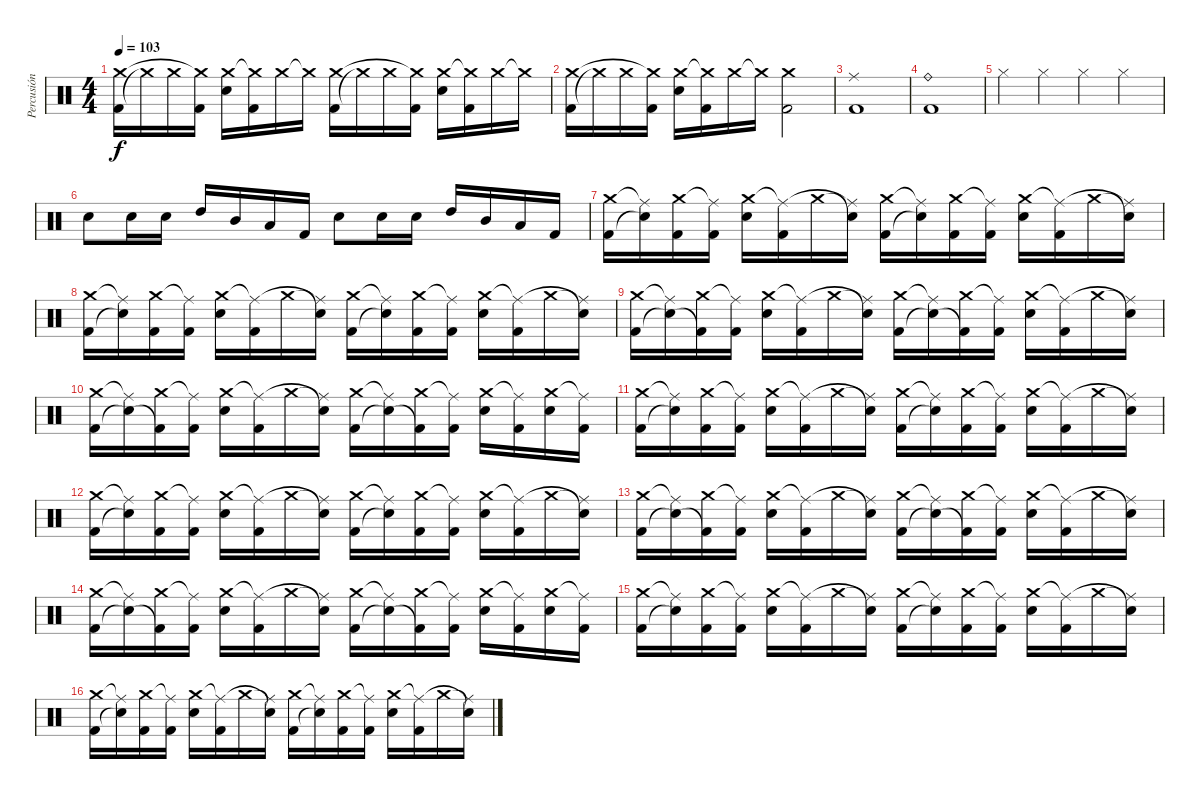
\track ("Percusión" "Percusión") {instrument percussion}
\staff {score}
\articulation defaults
\ts (4 4)
\tempo 103
\clef neutral
\ks c
("Kick (hit) 2" "Crash medium (hit)").16{dy f} "Crash medium (hit)"{t}.16 "Crash medium (hit)".16 ("Kick (hit) 2" "Crash medium (hit)"{t}).16 ("Electric Snare (hit)" "Crash medium (hit)").16 ("Kick (hit) 2" "Crash medium (hit)"{t}).16 "Crash medium (hit)".16 "Crash medium (hit)"{t}.16 ("Kick (hit) 2" "Crash medium (hit)").16 "Crash medium (hit)"{t}.16 "Crash medium (hit)".16 ("Kick (hit) 2" "Crash medium (hit)"{t}).16 ("Electric Snare (hit)" "Crash medium (hit)").16 ("Kick (hit) 2" "Crash medium (hit)"{t}).16 "Crash medium (hit)".16 "Crash medium (hit)"{t}.16 |
("Kick (hit) 2" "Crash medium (hit)").16 "Crash medium (hit)"{t}.16 "Crash medium (hit)".16 ("Kick (hit) 2" "Crash medium (hit)"{t}).16 ("Electric Snare (hit)" "Crash medium (hit)").16 ("Kick (hit) 2" "Crash medium (hit)"{t}).16 "Crash medium (hit)".16 "Crash medium (hit)"{t}.16 ("Kick (hit) 2" "Crash medium (hit)").2 |
("Ride (middle)" "Kick (hit) 2").1 |
("Ride (bell)" "Kick (hit) 2").1 |
"Hi-Hat (closed)".4 "Hi-Hat (closed)".4 "Hi-Hat (closed)".4 "Hi-Hat (closed)".4 |
"Electric Snare (hit)".8 "Electric Snare (hit)".16 "Electric Snare (hit)".16 "High Tom (hit)".16 "Mid Tom (hit)".16 "Low Tom (hit)".16 "Kick (hit) 2".16 "Electric Snare (hit)".8 "Electric Snare (hit)".16 "Electric Snare (hit)".16 "High Tom (hit)".16 "Mid Tom (hit)".16 "Low Tom (hit)".16 "Kick (hit) 2".16 |
("Kick (hit) 2" "Crash medium (hit)").16 ("Snare (hit)"{t} "Ride (middle)"{t}).16 ("Kick (hit) 2" "Crash medium (hit)").16 ("Kick (hit) 2" "Ride (middle)"{t}).16 ("Electric Snare (hit)" "Crash medium (hit)").16 ("Kick (hit) 2" "Ride (middle)"{t}).16 "Crash medium (hit)".16 ("Snare (hit)"{t} "Ride (middle)"{t}).16 ("Kick (hit) 2" "Crash medium (hit)").16 ("Snare (hit)"{t} "Ride (middle)"{t}).16 ("Kick (hit) 2" "Crash medium (hit)").16 ("Kick (hit) 2" "Ride (middle)"{t}).16 ("Electric Snare (hit)" "Crash medium (hit)").16 ("Kick (hit) 2" "Ride (middle)"{t}).16 "Crash medium (hit)".16 ("Snare (hit)"{t} "Ride (middle)"{t}).16 |
("Kick (hit) 2" "Crash medium (hit)").16 ("Snare (hit)"{t} "Ride (middle)"{t}).16 ("Kick (hit) 2" "Crash medium (hit)").16 ("Kick (hit) 2" "Ride (middle)"{t}).16 ("Electric Snare (hit)" "Crash medium (hit)").16 ("Kick (hit) 2" "Ride (middle)"{t}).16 "Crash medium (hit)".16 ("Snare (hit)"{t} "Ride (middle)"{t}).16 ("Kick (hit) 2" "Crash medium (hit)").16 ("Snare (hit)"{t} "Ride (middle)"{t}).16 ("Kick (hit) 2" "Crash medium (hit)").16 ("Kick (hit) 2" "Ride (middle)"{t}).16 ("Electric Snare (hit)" "Crash medium (hit)").16 ("Kick (hit) 2" "Ride (middle)"{t}).16 "Crash medium (hit)".16 ("Snare (hit)"{t} "Ride (middle)"{t}).16 |
("Kick (hit) 2" "Crash medium (hit)").16 ("Snare (hit)"{t} "Ride (middle)"{t}).16 ("Kick (hit) 2"{t} "Crash medium (hit)").16 ("Kick (hit) 2" "Ride (middle)"{t}).16 ("Electric Snare (hit)" "Crash medium (hit)").16 ("Kick (hit) 2" "Ride (middle)"{t}).16 "Crash medium (hit)".16 ("Snare (hit)"{t} "Ride (middle)"{t}).16 ("Kick (hit) 2" "Crash medium (hit)").16 ("Snare (hit)"{t} "Ride (middle)"{t}).16 ("Kick (hit) 2"{t} "Crash medium (hit)").16 ("Kick (hit) 2" "Ride (middle)"{t}).16 ("Electric Snare (hit)" "Crash medium (hit)").16 ("Kick (hit) 2" "Ride (middle)"{t}).16 "Crash medium (hit)".16 ("Snare (hit)"{t} "Ride (middle)"{t}).16 |
("Kick (hit) 2" "Crash medium (hit)").16 ("Snare (hit)"{t} "Ride (middle)"{t}).16 ("Kick (hit) 2"{t} "Crash medium (hit)").16 ("Kick (hit) 2" "Ride (middle)"{t}).16 ("Electric Snare (hit)" "Crash medium (hit)").16 ("Kick (hit) 2" "Ride (middle)"{t}).16 "Crash medium (hit)".16 ("Snare (hit)"{t} "Ride (middle)"{t}).16 ("Kick (hit) 2" "Crash medium (hit)").16 ("Snare (hit)"{t} "Ride (middle)"{t}).16 ("Kick (hit) 2"{t} "Crash medium (hit)").16 ("Kick (hit) 2" "Ride (middle)"{t}).16 ("Electric Snare (hit)" "Crash medium (hit)").16 ("Kick (hit) 2" "Ride (middle)"{t}).16 ("Electric Snare (hit)" "Crash medium (hit)").16 ("Kick (hit) 2" "Ride (middle)"{t}).16 |
("Kick (hit) 2" "Crash medium (hit)").16 ("Snare (hit)"{t} "Ride (middle)"{t}).16 ("Kick (hit) 2" "Crash medium (hit)").16 ("Kick (hit) 2" "Ride (middle)"{t}).16 ("Electric Snare (hit)" "Crash medium (hit)").16 ("Kick (hit) 2" "Ride (middle)"{t}).16 "Crash medium (hit)".16 ("Snare (hit)"{t} "Ride (middle)"{t}).16 ("Kick (hit) 2" "Crash medium (hit)").16 ("Snare (hit)"{t} "Ride (middle)"{t}).16 ("Kick (hit) 2" "Crash medium (hit)").16 ("Kick (hit) 2" "Ride (middle)"{t}).16 ("Electric Snare (hit)" "Crash medium (hit)").16 ("Kick (hit) 2" "Ride (middle)"{t}).16 "Crash medium (hit)".16 ("Snare (hit)"{t} "Ride (middle)"{t}).16 |
("Kick (hit) 2" "Crash medium (hit)").16 ("Snare (hit)"{t} "Ride (middle)"{t}).16 ("Kick (hit) 2" "Crash medium (hit)").16 ("Kick (hit) 2" "Ride (middle)"{t}).16 ("Electric Snare (hit)" "Crash medium (hit)").16 ("Kick (hit) 2" "Ride (middle)"{t}).16 "Crash medium (hit)".16 ("Snare (hit)"{t} "Ride (middle)"{t}).16 ("Kick (hit) 2" "Crash medium (hit)").16 ("Snare (hit)"{t} "Ride (middle)"{t}).16 ("Kick (hit) 2" "Crash medium (hit)").16 ("Kick (hit) 2" "Ride (middle)"{t}).16 ("Electric Snare (hit)" "Crash medium (hit)").16 ("Kick (hit) 2" "Ride (middle)"{t}).16 "Crash medium (hit)".16 ("Snare (hit)"{t} "Ride (middle)"{t}).16 |
("Kick (hit) 2" "Crash medium (hit)").16 ("Snare (hit)"{t} "Ride (middle)"{t}).16 ("Kick (hit) 2"{t} "Crash medium (hit)").16 ("Kick (hit) 2" "Ride (middle)"{t}).16 ("Electric Snare (hit)" "Crash medium (hit)").16 ("Kick (hit) 2" "Ride (middle)"{t}).16 "Crash medium (hit)".16 ("Snare (hit)"{t} "Ride (middle)"{t}).16 ("Kick (hit) 2" "Crash medium (hit)").16 ("Snare (hit)"{t} "Ride (middle)"{t}).16 ("Kick (hit) 2"{t} "Crash medium (hit)").16 ("Kick (hit) 2" "Ride (middle)"{t}).16 ("Electric Snare (hit)" "Crash medium (hit)").16 ("Kick (hit) 2" "Ride (middle)"{t}).16 "Crash medium (hit)".16 ("Snare (hit)"{t} "Ride (middle)"{t}).16 |
("Kick (hit) 2" "Crash medium (hit)").16 ("Snare (hit)"{t} "Ride (middle)"{t}).16 ("Kick (hit) 2"{t} "Crash medium (hit)").16 ("Kick (hit) 2" "Ride (middle)"{t}).16 ("Electric Snare (hit)" "Crash medium (hit)").16 ("Kick (hit) 2" "Ride (middle)"{t}).16 "Crash medium (hit)".16 ("Snare (hit)"{t} "Ride (middle)"{t}).16 ("Kick (hit) 2" "Crash medium (hit)").16 ("Snare (hit)"{t} "Ride (middle)"{t}).16 ("Kick (hit) 2"{t} "Crash medium (hit)").16 ("Kick (hit) 2" "Ride (middle)"{t}).16 ("Electric Snare (hit)" "Crash medium (hit)").16 ("Kick (hit) 2" "Ride (middle)"{t}).16 ("Electric Snare (hit)" "Crash medium (hit)").16 ("Kick (hit) 2" "Ride (middle)"{t}).16 |
("Kick (hit) 2" "Crash medium (hit)").16 ("Snare (hit)"{t} "Ride (middle)"{t}).16 ("Kick (hit) 2" "Crash medium (hit)").16 ("Kick (hit) 2" "Ride (middle)"{t}).16 ("Electric Snare (hit)" "Crash medium (hit)").16 ("Kick (hit) 2" "Ride (middle)"{t}).16 "Crash medium (hit)".16 ("Snare (hit)"{t} "Ride (middle)"{t}).16 ("Kick (hit) 2" "Crash medium (hit)").16 ("Snare (hit)"{t} "Ride (middle)"{t}).16 ("Kick (hit) 2" "Crash medium (hit)").16 ("Kick (hit) 2" "Ride (middle)"{t}).16 ("Electric Snare (hit)" "Crash medium (hit)").16 ("Kick (hit) 2" "Ride (middle)"{t}).16 "Crash medium (hit)".16 ("Snare (hit)"{t} "Ride (middle)"{t}).16 |
("Kick (hit) 2" "Crash medium (hit)").16 ("Snare (hit)"{t} "Ride (middle)"{t}).16 ("Kick (hit) 2" "Crash medium (hit)").16 ("Kick (hit) 2" "Ride (middle)"{t}).16 ("Electric Snare (hit)" "Crash medium (hit)").16 ("Kick (hit) 2" "Ride (middle)"{t}).16 "Crash medium (hit)".16 ("Snare (hit)"{t} "Ride (middle)"{t}).16 ("Kick (hit) 2" "Crash medium (hit)").16 ("Snare (hit)"{t} "Ride (middle)"{t}).16 ("Kick (hit) 2" "Crash medium (hit)").16 ("Kick (hit) 2" "Ride (middle)"{t}).16 ("Electric Snare (hit)" "Crash medium (hit)").16 ("Kick (hit) 2" "Ride (middle)"{t}).16 "Crash medium (hit)".16 ("Snare (hit)"{t} "Ride (middle)"{t}).16
